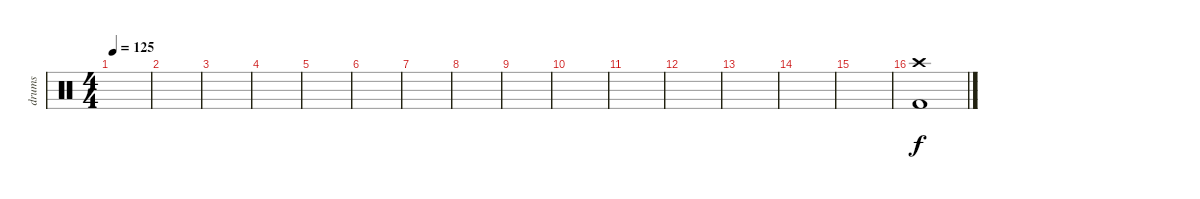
\track ("drums" "drums") {instrument percussion}
\staff {score}
\articulation defaults
\ts (4 4)
\tempo 125
\clef neutral
\ks c
|
|
|
|
|
|
|
|
|
|
|
|
|
|
|
("Kick (hit) 2" "Crash high (hit)").1
